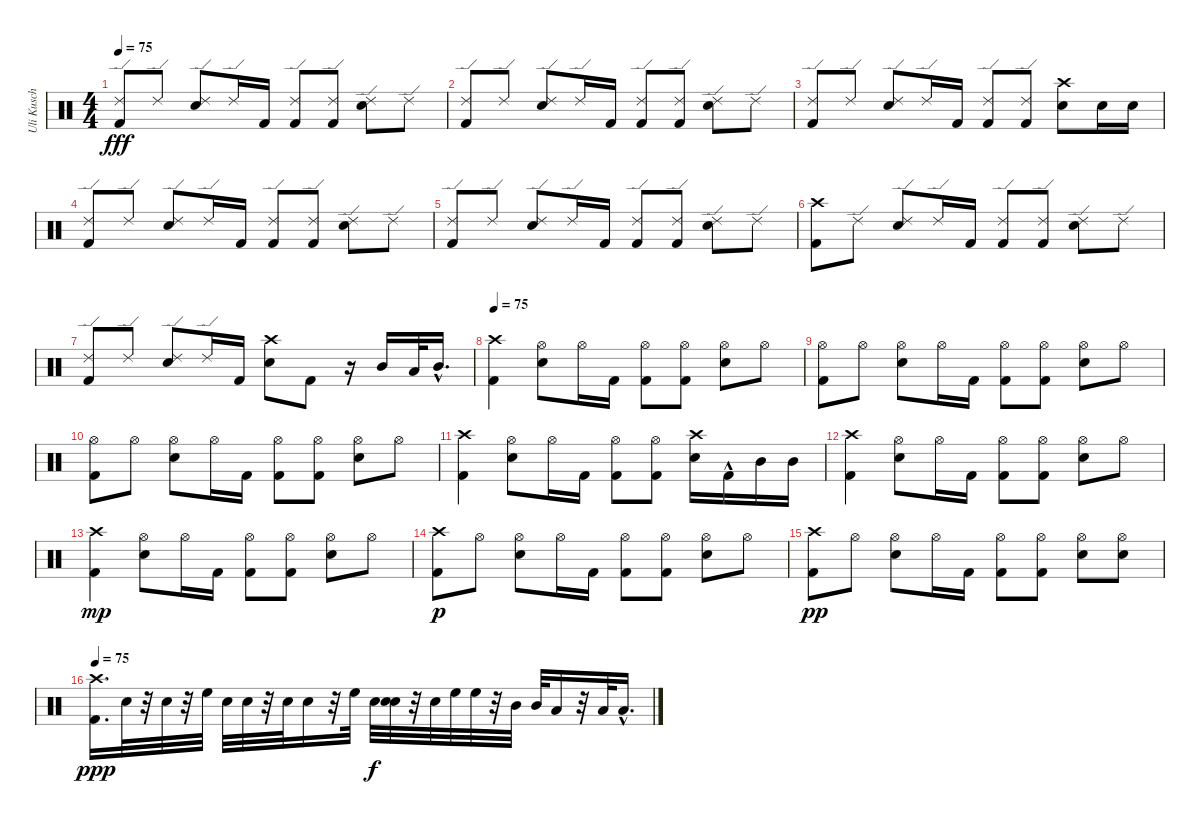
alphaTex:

\track ("Uli Kusch" "Uli Kusch") {instrument percussion}
\staff {score}
\articulation defaults
\ts (4 4)
\tempo 75
\clef neutral
\ks c
("Kick (hit) 2" "Ride (edge) 2").8{dy fff} "Ride (edge) 2".8 ("Electric Snare (hit)" "Ride (edge) 2").8 "Ride (edge) 2".16 "Kick (hit) 2".16 ("Kick (hit) 2" "Ride (edge) 2").8 ("Kick (hit) 2" "Ride (edge) 2").8 ("Electric Snare (hit)" "Ride (edge) 2").8 "Ride (edge) 2".8 |
("Kick (hit) 2" "Ride (edge) 2").8 "Ride (edge) 2".8 ("Electric Snare (hit)" "Ride (edge) 2").8 "Ride (edge) 2".16 "Kick (hit) 2".16 ("Kick (hit) 2" "Ride (edge) 2").8 ("Kick (hit) 2" "Ride (edge) 2").8 ("Electric Snare (hit)" "Ride (edge) 2").8 "Ride (edge) 2".8 |
("Kick (hit) 2" "Ride (edge) 2").8 "Ride (edge) 2".8 ("Electric Snare (hit)" "Ride (edge) 2").8 "Ride (edge) 2".16 "Kick (hit) 2".16 ("Kick (hit) 2" "Ride (edge) 2").8 ("Kick (hit) 2" "Ride (edge) 2").8 ("Crash high (hit)" "Electric Snare (hit)").8 "Electric Snare (hit)".16 "Electric Snare (hit)".16 |
("Kick (hit) 2" "Ride (edge) 2").8 "Ride (edge) 2".8 ("Electric Snare (hit)" "Ride (edge) 2").8 "Ride (edge) 2".16 "Kick (hit) 2".16 ("Kick (hit) 2" "Ride (edge) 2").8 ("Kick (hit) 2" "Ride (edge) 2").8 ("Electric Snare (hit)" "Ride (edge) 2").8 "Ride (edge) 2".8 |
("Kick (hit) 2" "Ride (edge) 2").8 "Ride (edge) 2".8 ("Electric Snare (hit)" "Ride (edge) 2").8 "Ride (edge) 2".16 "Kick (hit) 2".16 ("Kick (hit) 2" "Ride (edge) 2").8 ("Kick (hit) 2" "Ride (edge) 2").8 ("Electric Snare (hit)" "Ride (edge) 2").8 "Ride (edge) 2".8 |
("Kick (hit) 2" "Crash high (hit)").8 "Ride (edge) 2".8 ("Electric Snare (hit)" "Ride (edge) 2").8 "Ride (edge) 2".16 "Kick (hit) 2".16 ("Kick (hit) 2" "Ride (edge) 2").8 ("Kick (hit) 2" "Ride (edge) 2").8 ("Electric Snare (hit)" "Ride (edge) 2").8 "Ride (edge) 2".8 |
("Kick (hit) 2" "Ride (edge) 2").8 "Ride (edge) 2".8 ("Electric Snare (hit)" "Ride (edge) 2").8 "Ride (edge) 2".16 "Kick (hit) 2".16 ("Electric Snare (hit)" "Crash high (hit)").8 "Kick (hit) 2".8 r.16 "Mid Tom (hit)".16 "Low Tom (hit)".32 "Mid Tom (hit)"{hac}.16{d} |
\tempo 75
("Kick (hit) 2" "Crash high (hit)").4 ("Electric Snare (hit)" "Hi-Hat (open)").8 "Hi-Hat (open)".16 "Kick (hit) 2".16 ("Kick (hit) 2" "Hi-Hat (open)").8 ("Kick (hit) 2" "Hi-Hat (open)").8 ("Electric Snare (hit)" "Hi-Hat (open)").8 "Hi-Hat (open)".8 |
("Kick (hit) 2" "Hi-Hat (open)").8 "Hi-Hat (open)".8 ("Electric Snare (hit)" "Hi-Hat (open)").8 "Hi-Hat (open)".16 "Kick (hit) 2".16 ("Kick (hit) 2" "Hi-Hat (open)").8 ("Kick (hit) 2" "Hi-Hat (open)").8 ("Electric Snare (hit)" "Hi-Hat (open)").8 "Hi-Hat (open)".8 |
("Kick (hit) 2" "Hi-Hat (open)").8 "Hi-Hat (open)".8 ("Electric Snare (hit)" "Hi-Hat (open)").8 "Hi-Hat (open)".16 "Kick (hit) 2".16 ("Kick (hit) 2" "Hi-Hat (open)").8 ("Kick (hit) 2" "Hi-Hat (open)").8 ("Electric Snare (hit)" "Hi-Hat (open)").8 "Hi-Hat (open)".8 |
("Kick (hit) 2" "Crash high (hit)").4 ("Electric Snare (hit)" "Hi-Hat (open)").8 "Hi-Hat (open)".16 "Kick (hit) 2".16 ("Kick (hit) 2" "Hi-Hat (open)").8 ("Kick (hit) 2" "Hi-Hat (open)").8 ("Crash high (hit)" "Electric Snare (hit)").16 "Kick (hit) 2"{hac}.16 "Mid Tom (hit)".16 "Mid Tom (hit)".16 |
("Kick (hit) 2" "Crash high (hit)").4 ("Electric Snare (hit)" "Hi-Hat (open)").8 "Hi-Hat (open)".16 "Kick (hit) 2".16 ("Kick (hit) 2" "Hi-Hat (open)").8 ("Kick (hit) 2" "Hi-Hat (open)").8 ("Electric Snare (hit)" "Hi-Hat (open)").8 "Hi-Hat (open)".8 |
("Kick (hit) 2" "Crash high (hit)").4{dy mp} ("Electric Snare (hit)" "Hi-Hat (open)").8 "Hi-Hat (open)".16 "Kick (hit) 2".16 ("Kick (hit) 2" "Hi-Hat (open)").8 ("Kick (hit) 2" "Hi-Hat (open)").8 ("Electric Snare (hit)" "Hi-Hat (open)").8 "Hi-Hat (open)".8 |
("Kick (hit) 2" "Crash high (hit)").8{dy p} "Hi-Hat (open)".8 ("Electric Snare (hit)" "Hi-Hat (open)").8 "Hi-Hat (open)".16 "Kick (hit) 2".16 ("Kick (hit) 2" "Hi-Hat (open)").8 ("Kick (hit) 2" "Hi-Hat (open)").8 ("Electric Snare (hit)" "Hi-Hat (open)").8 "Hi-Hat (open)".8 |
("Kick (hit) 2" "Crash high (hit)").8{dy pp} "Hi-Hat (open)".8 ("Electric Snare (hit)" "Hi-Hat (open)").8 "Hi-Hat (open)".16 "Kick (hit) 2".16 ("Kick (hit) 2" "Hi-Hat (open)").8 ("Kick (hit) 2" "Hi-Hat (open)").8 ("Hi-Hat (open)" "Electric Snare (hit)").8 ("Hi-Hat (open)" "Electric Snare (hit)").8 |
\tempo 75
("Kick (hit) 2" "Crash high (hit)").16{d dy ppp} "Electric Snare (hit)".32 r.32 "Electric Snare (hit)".32 r.32 "High Floor Tom (hit)".32 "Electric Snare (hit)".32 "Electric Snare (hit)".32 r.32 "Electric Snare (hit)".32 "Electric Snare (hit)".16 r.32 "High Floor Tom (hit)".32 "Electric Snare (hit)".32{dy f} ("Electric Snare (hit)" "Electric Snare (hit)").32 r.32 "Electric Snare (hit)".32 "High Floor Tom (hit)".32 "High Floor Tom (hit)".32 r.32 "Mid Tom (hit)".32 "Mid Tom (hit)".32 "Low Tom (hit)".16 r.32 "Low Floor Tom (hit)".32 "Low Floor Tom (hit)"{hac}.16{d}
